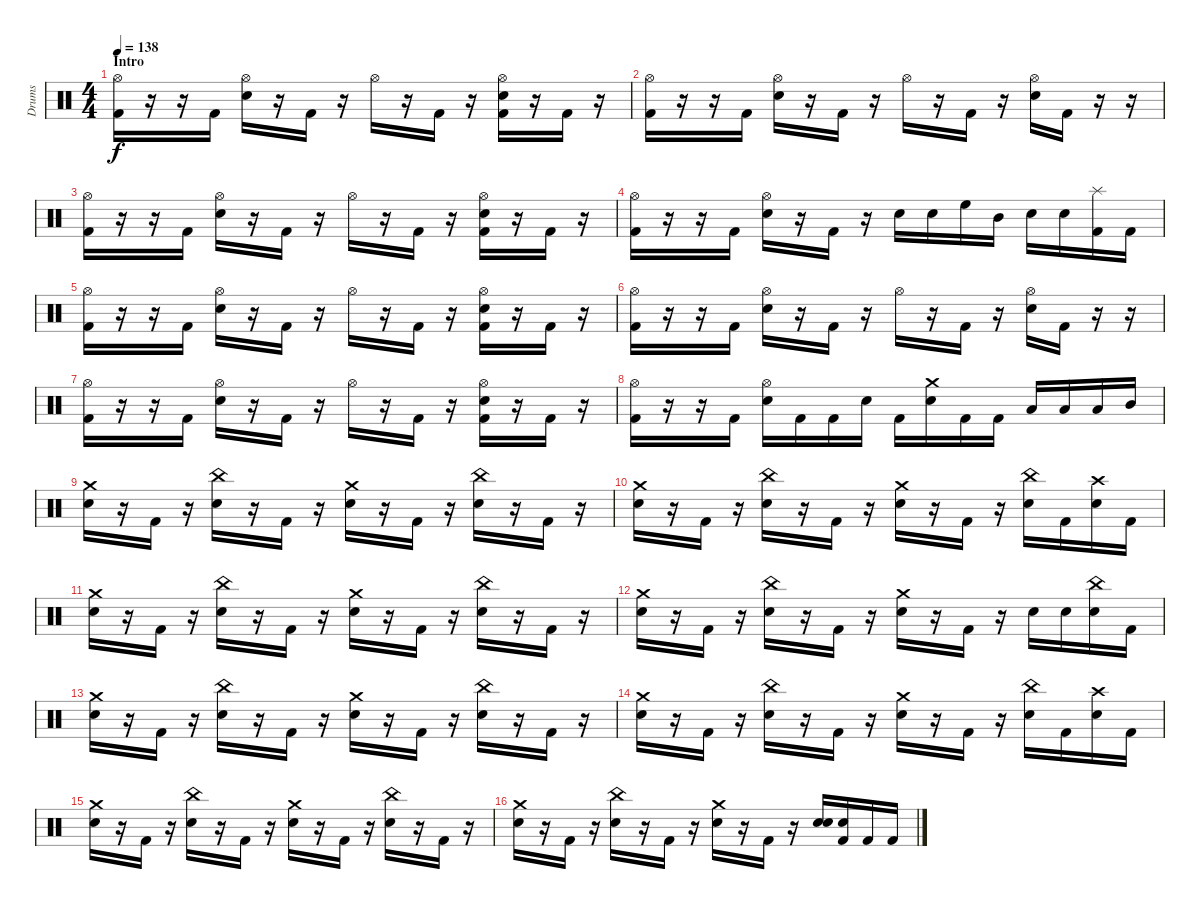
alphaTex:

\track ("Drums" "Drums") {instrument percussion}
\staff {score}
\articulation defaults
\ts (4 4)
\section ("" "Intro")
\tempo 138
\clef neutral
\ks c
("Hi-Hat (open)" "Kick (hit) 2").16{dy f} r.16 r.16 "Kick (hit) 2".16 ("Hi-Hat (open)" "Snare (hit) 2").16 r.16 "Kick (hit) 2".16 r.16 "Hi-Hat (open)".16 r.16 "Kick (hit) 2".16 r.16 ("Hi-Hat (open)" "Snare (hit) 2" "Kick (hit) 2").16 r.16 "Kick (hit) 2".16 r.16 |
("Hi-Hat (open)" "Kick (hit) 2").16 r.16 r.16 "Kick (hit) 2".16 ("Hi-Hat (open)" "Snare (hit) 2").16 r.16 "Kick (hit) 2".16 r.16 "Hi-Hat (open)".16 r.16 "Kick (hit) 2".16 r.16 ("Hi-Hat (open)" "Snare (hit) 2").16 "Kick (hit) 2".16 r.16 r.16 |
("Hi-Hat (open)" "Kick (hit) 2").16 r.16 r.16 "Kick (hit) 2".16 ("Hi-Hat (open)" "Snare (hit) 2").16 r.16 "Kick (hit) 2".16 r.16 "Hi-Hat (open)".16 r.16 "Kick (hit) 2".16 r.16 ("Hi-Hat (open)" "Snare (hit) 2" "Kick (hit) 2").16 r.16 "Kick (hit) 2".16 r.16 |
("Hi-Hat (open)" "Kick (hit) 2").16 r.16 r.16 "Kick (hit) 2".16 ("Hi-Hat (open)" "Snare (hit) 2").16 r.16 "Kick (hit) 2".16 r.16 "Snare (hit) 2".16 "Snare (hit) 2".16 "High Floor Tom (hit)".16 "Mid Tom (hit)".16 "Snare (hit) 2".16 "Snare (hit) 2".16 ("Splash (hit)" "Kick (hit) 2").16 "Kick (hit) 2".16 |
("Hi-Hat (open)" "Kick (hit) 2").16 r.16 r.16 "Kick (hit) 2".16 ("Hi-Hat (open)" "Snare (hit) 2").16 r.16 "Kick (hit) 2".16 r.16 "Hi-Hat (open)".16 r.16 "Kick (hit) 2".16 r.16 ("Hi-Hat (open)" "Snare (hit) 2" "Kick (hit) 2").16 r.16 "Kick (hit) 2".16 r.16 |
("Hi-Hat (open)" "Kick (hit) 2").16 r.16 r.16 "Kick (hit) 2".16 ("Hi-Hat (open)" "Snare (hit) 2").16 r.16 "Kick (hit) 2".16 r.16 "Hi-Hat (open)".16 r.16 "Kick (hit) 2".16 r.16 ("Hi-Hat (open)" "Snare (hit) 2").16 "Kick (hit) 2".16 r.16 r.16 |
("Hi-Hat (open)" "Kick (hit) 2").16 r.16 r.16 "Kick (hit) 2".16 ("Hi-Hat (open)" "Snare (hit) 2").16 r.16 "Kick (hit) 2".16 r.16 "Hi-Hat (open)".16 r.16 "Kick (hit) 2".16 r.16 ("Hi-Hat (open)" "Snare (hit) 2" "Kick (hit) 2").16 r.16 "Kick (hit) 2".16 r.16 |
("Hi-Hat (open)" "Kick (hit) 2").16 r.16 r.16 "Kick (hit) 2".16 ("Hi-Hat (open)" "Snare (hit) 2").16 "Kick (hit) 2".16 "Kick (hit) 2".16 "Snare (hit) 2".16 "Kick (hit) 2".16 ("Crash medium (hit)" "Snare (hit) 2").16 "Kick (hit) 2".16 "Kick (hit) 2".16 "Low Tom (hit)".16 "Low Tom (hit)".16 "Low Tom (hit)".16 "Mid Tom (hit)".16 |
("Crash medium (hit)" "Snare (hit) 2").16 r.16 "Kick (hit) 2".16 r.16 ("China (hit)" "Snare (hit) 2").16 r.16 "Kick (hit) 2".16 r.16 ("Crash medium (hit)" "Snare (hit) 2").16 r.16 "Kick (hit) 2".16 r.16 ("China (hit)" "Snare (hit) 2").16 r.16 "Kick (hit) 2".16 r.16 |
("Crash medium (hit)" "Snare (hit) 2").16 r.16 "Kick (hit) 2".16 r.16 ("China (hit)" "Snare (hit) 2").16 r.16 "Kick (hit) 2".16 r.16 ("Crash medium (hit)" "Snare (hit) 2").16 r.16 "Kick (hit) 2".16 r.16 ("China (hit)" "Snare (hit) 2").16 "Kick (hit) 2".16 ("Crash high (hit)" "Snare (hit) 2").16 "Kick (hit) 2".16 |
("Crash medium (hit)" "Snare (hit) 2").16 r.16 "Kick (hit) 2".16 r.16 ("China (hit)" "Snare (hit) 2").16 r.16 "Kick (hit) 2".16 r.16 ("Crash medium (hit)" "Snare (hit) 2").16 r.16 "Kick (hit) 2".16 r.16 ("China (hit)" "Snare (hit) 2").16 r.16 "Kick (hit) 2".16 r.16 |
("Crash medium (hit)" "Snare (hit) 2").16 r.16 "Kick (hit) 2".16 r.16 ("China (hit)" "Snare (hit) 2").16 r.16 "Kick (hit) 2".16 r.16 ("Crash medium (hit)" "Snare (hit) 2").16 r.16 "Kick (hit) 2".16 r.16 "Snare (hit) 2".16 "Snare (hit) 2".16 ("China (hit)" "Snare (hit) 2").16 "Kick (hit) 2".16 |
("Crash medium (hit)" "Snare (hit) 2").16 r.16 "Kick (hit) 2".16 r.16 ("China (hit)" "Snare (hit) 2").16 r.16 "Kick (hit) 2".16 r.16 ("Crash medium (hit)" "Snare (hit) 2").16 r.16 "Kick (hit) 2".16 r.16 ("China (hit)" "Snare (hit) 2").16 r.16 "Kick (hit) 2".16 r.16 |
("Crash medium (hit)" "Snare (hit) 2").16 r.16 "Kick (hit) 2".16 r.16 ("China (hit)" "Snare (hit) 2").16 r.16 "Kick (hit) 2".16 r.16 ("Crash medium (hit)" "Snare (hit) 2").16 r.16 "Kick (hit) 2".16 r.16 ("China (hit)" "Snare (hit) 2").16 "Kick (hit) 2".16 ("Crash high (hit)" "Snare (hit) 2").16 "Kick (hit) 2".16 |
("Crash medium (hit)" "Snare (hit) 2").16 r.16 "Kick (hit) 2".16 r.16 ("China (hit)" "Snare (hit) 2").16 r.16 "Kick (hit) 2".16 r.16 ("Crash medium (hit)" "Snare (hit) 2").16 r.16 "Kick (hit) 2".16 r.16 ("China (hit)" "Snare (hit) 2").16 r.16 "Kick (hit) 2".16 r.16 |
("Crash medium (hit)" "Snare (hit) 2").16 r.16 "Kick (hit) 2".16 r.16 ("China (hit)" "Snare (hit) 2").16 r.16 "Kick (hit) 2".16 r.16 ("Crash medium (hit)" "Snare (hit) 2").16 r.16 "Kick (hit) 2".16 r.16 ("Snare (hit) 2" "Snare (hit) 2").16 ("Snare (hit) 2" "Kick (hit) 2").16 "Kick (hit) 2".16 "Kick (hit) 2".16
